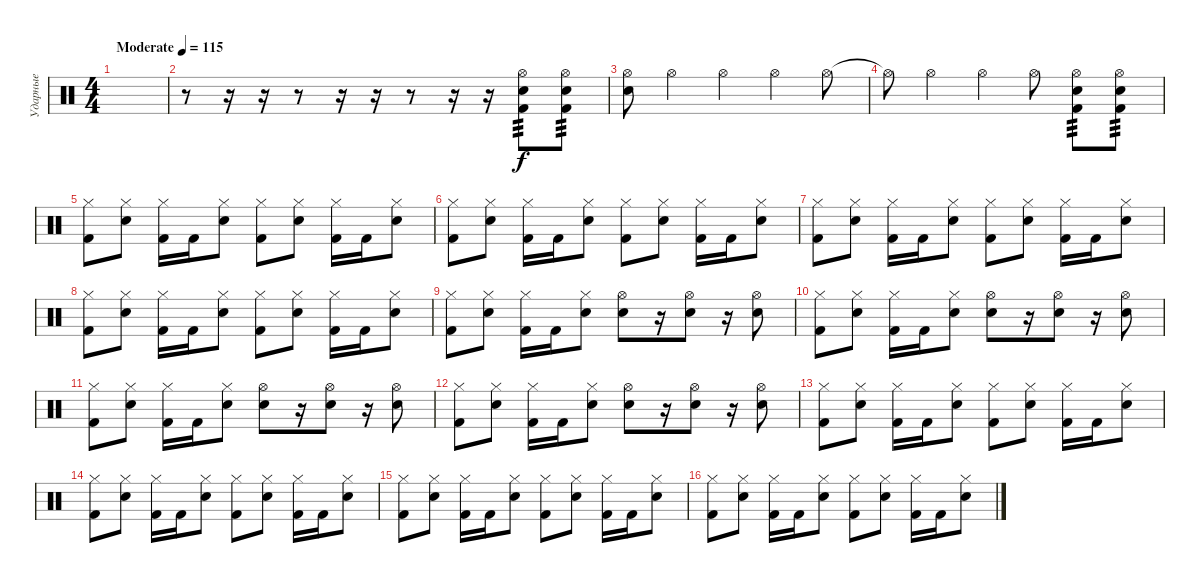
\track ("Ударные" "Ударные") {instrument percussion}
\staff {score}
\articulation defaults
\ts (4 4)
\tempo (115 "Moderate")
\clef neutral
\ks c
|
r.8 r.16 r.16 r.8 r.16 r.16 r.8 r.16 r.16 ("Hi-Hat (open)" "Electric Snare (hit)" "Kick (hit) 2").8{tp 3} ("Hi-Hat (open)" "Electric Snare (hit)" "Kick (hit) 2").8{tp 3} |
("Hi-Hat (open)" "Electric Snare (hit)").8 "Hi-Hat (open)".4 "Hi-Hat (open)".4 "Hi-Hat (open)".4 "Hi-Hat (open)".8 |
"Hi-Hat (open)"{t}.8 "Hi-Hat (open)".4 "Hi-Hat (open)".4 "Hi-Hat (open)".8 ("Hi-Hat (open)" "Electric Snare (hit)" "Kick (hit) 2").8{tp 3} ("Hi-Hat (open)" "Electric Snare (hit)" "Kick (hit) 2").8{tp 3} |
("Hi-Hat (closed)" "Kick (hit) 2").8 ("Hi-Hat (closed)" "Electric Snare (hit)").8 ("Hi-Hat (closed)" "Kick (hit) 2").16 "Kick (hit) 2".16 ("Hi-Hat (closed)" "Electric Snare (hit)").8 ("Hi-Hat (closed)" "Kick (hit) 2").8 ("Hi-Hat (closed)" "Electric Snare (hit)").8 ("Hi-Hat (closed)" "Kick (hit) 2").16 "Kick (hit) 2".16 ("Hi-Hat (closed)" "Electric Snare (hit)").8 |
("Hi-Hat (closed)" "Kick (hit) 2").8 ("Hi-Hat (closed)" "Electric Snare (hit)").8 ("Hi-Hat (closed)" "Kick (hit) 2").16 "Kick (hit) 2".16 ("Hi-Hat (closed)" "Electric Snare (hit)").8 ("Hi-Hat (closed)" "Kick (hit) 2").8 ("Hi-Hat (closed)" "Electric Snare (hit)").8 ("Hi-Hat (closed)" "Kick (hit) 2").16 "Kick (hit) 2".16 ("Hi-Hat (closed)" "Electric Snare (hit)").8 |
("Hi-Hat (closed)" "Kick (hit) 2").8 ("Hi-Hat (closed)" "Electric Snare (hit)").8 ("Hi-Hat (closed)" "Kick (hit) 2").16 "Kick (hit) 2".16 ("Hi-Hat (closed)" "Electric Snare (hit)").8 ("Hi-Hat (closed)" "Kick (hit) 2").8 ("Hi-Hat (closed)" "Electric Snare (hit)").8 ("Hi-Hat (closed)" "Kick (hit) 2").16 "Kick (hit) 2".16 ("Hi-Hat (closed)" "Electric Snare (hit)").8 |
("Hi-Hat (closed)" "Kick (hit) 2").8 ("Hi-Hat (closed)" "Electric Snare (hit)").8 ("Hi-Hat (closed)" "Kick (hit) 2").16 "Kick (hit) 2".16 ("Hi-Hat (closed)" "Electric Snare (hit)").8 ("Hi-Hat (closed)" "Kick (hit) 2").8 ("Hi-Hat (closed)" "Electric Snare (hit)").8 ("Hi-Hat (closed)" "Kick (hit) 2").16 "Kick (hit) 2".16 ("Hi-Hat (closed)" "Electric Snare (hit)").8 |
("Hi-Hat (closed)" "Kick (hit) 2").8 ("Hi-Hat (closed)" "Electric Snare (hit)").8 ("Hi-Hat (closed)" "Kick (hit) 2").16 "Kick (hit) 2".16 ("Hi-Hat (closed)" "Electric Snare (hit)").8 ("Hi-Hat (open)" "Electric Snare (hit)").8 r.16 ("Hi-Hat (open)" "Electric Snare (hit)").8 r.16 ("Hi-Hat (open)" "Electric Snare (hit)").8 |
("Hi-Hat (closed)" "Kick (hit) 2").8 ("Hi-Hat (closed)" "Electric Snare (hit)").8 ("Hi-Hat (closed)" "Kick (hit) 2").16 "Kick (hit) 2".16 ("Hi-Hat (closed)" "Electric Snare (hit)").8 ("Hi-Hat (open)" "Electric Snare (hit)").8 r.16 ("Hi-Hat (open)" "Electric Snare (hit)").8 r.16 ("Hi-Hat (open)" "Electric Snare (hit)").8 |
("Hi-Hat (closed)" "Kick (hit) 2").8 ("Hi-Hat (closed)" "Electric Snare (hit)").8 ("Hi-Hat (closed)" "Kick (hit) 2").16 "Kick (hit) 2".16 ("Hi-Hat (closed)" "Electric Snare (hit)").8 ("Hi-Hat (open)" "Electric Snare (hit)").8 r.16 ("Hi-Hat (open)" "Electric Snare (hit)").8 r.16 ("Hi-Hat (open)" "Electric Snare (hit)").8 |
("Hi-Hat (closed)" "Kick (hit) 2").8 ("Hi-Hat (closed)" "Electric Snare (hit)").8 ("Hi-Hat (closed)" "Kick (hit) 2").16 "Kick (hit) 2".16 ("Hi-Hat (closed)" "Electric Snare (hit)").8 ("Hi-Hat (open)" "Electric Snare (hit)").8 r.16 ("Hi-Hat (open)" "Electric Snare (hit)").8 r.16 ("Hi-Hat (open)" "Electric Snare (hit)").8 |
("Hi-Hat (closed)" "Kick (hit) 2").8 ("Hi-Hat (closed)" "Electric Snare (hit)").8 ("Hi-Hat (closed)" "Kick (hit) 2").16 "Kick (hit) 2".16 ("Hi-Hat (closed)" "Electric Snare (hit)").8 ("Hi-Hat (closed)" "Kick (hit) 2").8 ("Hi-Hat (closed)" "Electric Snare (hit)").8 ("Hi-Hat (closed)" "Kick (hit) 2").16 "Kick (hit) 2".16 ("Hi-Hat (closed)" "Electric Snare (hit)").8 |
("Hi-Hat (closed)" "Kick (hit) 2").8 ("Hi-Hat (closed)" "Electric Snare (hit)").8 ("Hi-Hat (closed)" "Kick (hit) 2").16 "Kick (hit) 2".16 ("Hi-Hat (closed)" "Electric Snare (hit)").8 ("Hi-Hat (closed)" "Kick (hit) 2").8 ("Hi-Hat (closed)" "Electric Snare (hit)").8 ("Hi-Hat (closed)" "Kick (hit) 2").16 "Kick (hit) 2".16 ("Hi-Hat (closed)" "Electric Snare (hit)").8 |
("Hi-Hat (closed)" "Kick (hit) 2").8 ("Hi-Hat (closed)" "Electric Snare (hit)").8 ("Hi-Hat (closed)" "Kick (hit) 2").16 "Kick (hit) 2".16 ("Hi-Hat (closed)" "Electric Snare (hit)").8 ("Hi-Hat (closed)" "Kick (hit) 2").8 ("Hi-Hat (closed)" "Electric Snare (hit)").8 ("Hi-Hat (closed)" "Kick (hit) 2").16 "Kick (hit) 2".16 ("Hi-Hat (closed)" "Electric Snare (hit)").8 |
("Hi-Hat (closed)" "Kick (hit) 2").8 ("Hi-Hat (closed)" "Electric Snare (hit)").8 ("Hi-Hat (closed)" "Kick (hit) 2").16 "Kick (hit) 2".16 ("Hi-Hat (closed)" "Electric Snare (hit)").8 ("Hi-Hat (closed)" "Kick (hit) 2").8 ("Hi-Hat (closed)" "Electric Snare (hit)").8 ("Hi-Hat (closed)" "Kick (hit) 2").16 "Kick (hit) 2".16 ("Hi-Hat (closed)" "Electric Snare (hit)").8
